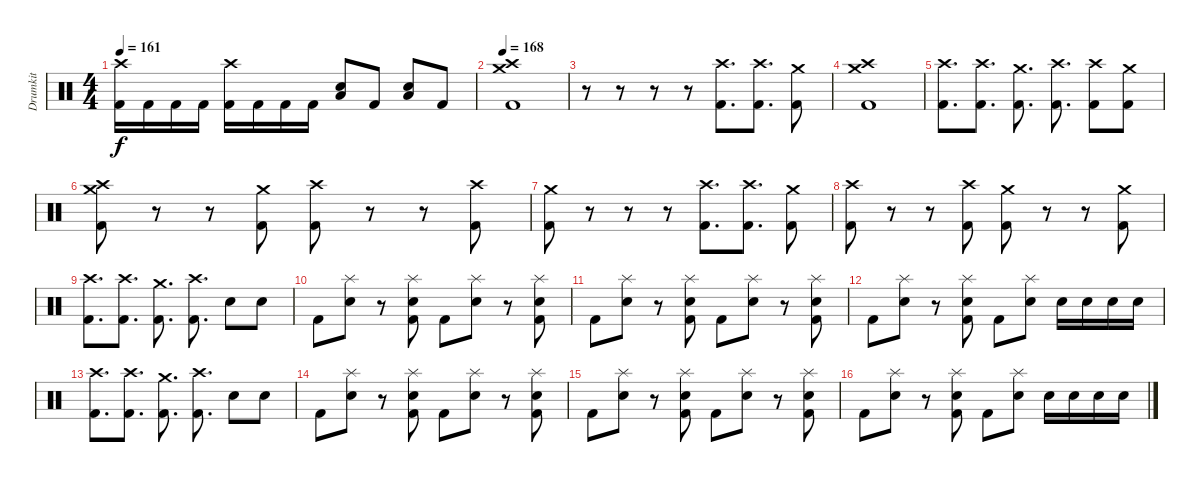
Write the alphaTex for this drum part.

\track ("Drumkit" "Drumkit") {instrument percussion}
\staff {score}
\articulation defaults
\ts (4 4)
\tempo 161
\clef neutral
\ks c
("Crash high (hit)" "Kick (hit) 2").16{dy f} "Kick (hit) 2".16 "Kick (hit) 2".16 "Kick (hit) 2".16 ("Crash high (hit)" "Kick (hit) 2").16 "Kick (hit) 2".16 "Kick (hit) 2".16 "Kick (hit) 2".16 ("Low Tom (hit)" "Snare (hit) 2").8 "Kick (hit) 2".8 ("Low Tom (hit)" "Snare (hit) 2").8 "Kick (hit) 2".8 |
\tempo 168
("Crash medium (hit)" "Crash high (hit)" "Kick (hit) 2").1 |
r.8 r.8 r.8 r.8 ("Crash high (hit)" "Kick (hit) 2").8{d} ("Crash high (hit)" "Kick (hit) 2").8{d} ("Crash medium (hit)" "Kick (hit) 2").8 |
("Crash high (hit)" "Crash medium (hit)" "Kick (hit) 2").1 |
("Crash high (hit)" "Kick (hit) 2").8{d} ("Crash high (hit)" "Kick (hit) 2").8{d} ("Crash medium (hit)" "Kick (hit) 2").8{d} ("Crash high (hit)" "Kick (hit) 2").8{d} ("Crash high (hit)" "Kick (hit) 2").8 ("Crash medium (hit)" "Kick (hit) 2").8 |
("Crash high (hit)" "Crash medium (hit)" "Kick (hit) 2").8 r.8 r.8 ("Crash medium (hit)" "Kick (hit) 2").8 ("Crash high (hit)" "Kick (hit) 2").8 r.8 r.8 ("Crash high (hit)" "Kick (hit) 2").8 |
("Crash medium (hit)" "Kick (hit) 2").8 r.8 r.8 r.8 ("Crash high (hit)" "Kick (hit) 2").8{d} ("Crash high (hit)" "Kick (hit) 2").8{d} ("Crash medium (hit)" "Kick (hit) 2").8 |
("Crash high (hit)" "Kick (hit) 2").8 r.8 r.8 ("Crash high (hit)" "Kick (hit) 2").8 ("Crash medium (hit)" "Kick (hit) 2").8 r.8 r.8 ("Crash medium (hit)" "Kick (hit) 2").8 |
("Crash high (hit)" "Kick (hit) 2").8{d} ("Crash high (hit)" "Kick (hit) 2").8{d} ("Crash medium (hit)" "Kick (hit) 2").8{d} ("Crash high (hit)" "Kick (hit) 2").8{d} "Snare (hit) 2".8 "Snare (hit) 2".8 |
"Kick (hit) 2".8 ("Splash (hit)" "Snare (hit) 2").8 r.8 ("Splash (hit)" "Snare (hit) 2" "Kick (hit) 2").8 "Kick (hit) 2".8 ("Splash (hit)" "Snare (hit) 2").8 r.8 ("Splash (hit)" "Snare (hit) 2" "Kick (hit) 2").8 |
"Kick (hit) 2".8 ("Splash (hit)" "Snare (hit) 2").8 r.8 ("Splash (hit)" "Snare (hit) 2" "Kick (hit) 2").8 "Kick (hit) 2".8 ("Splash (hit)" "Snare (hit) 2").8 r.8 ("Splash (hit)" "Snare (hit) 2" "Kick (hit) 2").8 |
"Kick (hit) 2".8 ("Splash (hit)" "Snare (hit) 2").8 r.8 ("Splash (hit)" "Snare (hit) 2" "Kick (hit) 2").8 "Kick (hit) 2".8 ("Splash (hit)" "Snare (hit) 2").8 "Snare (hit) 2".16 "Snare (hit) 2".16 "Snare (hit) 2".16 "Snare (hit) 2".16 |
("Crash high (hit)" "Kick (hit) 2").8{d} ("Crash high (hit)" "Kick (hit) 2").8{d} ("Crash medium (hit)" "Kick (hit) 2").8{d} ("Crash high (hit)" "Kick (hit) 2").8{d} "Snare (hit) 2".8 "Snare (hit) 2".8 |
"Kick (hit) 2".8 ("Splash (hit)" "Snare (hit) 2").8 r.8 ("Splash (hit)" "Snare (hit) 2" "Kick (hit) 2").8 "Kick (hit) 2".8 ("Splash (hit)" "Snare (hit) 2").8 r.8 ("Splash (hit)" "Snare (hit) 2" "Kick (hit) 2").8 |
"Kick (hit) 2".8 ("Splash (hit)" "Snare (hit) 2").8 r.8 ("Splash (hit)" "Snare (hit) 2" "Kick (hit) 2").8 "Kick (hit) 2".8 ("Splash (hit)" "Snare (hit) 2").8 r.8 ("Splash (hit)" "Snare (hit) 2" "Kick (hit) 2").8 |
"Kick (hit) 2".8 ("Splash (hit)" "Snare (hit) 2").8 r.8 ("Splash (hit)" "Snare (hit) 2" "Kick (hit) 2").8 "Kick (hit) 2".8 ("Splash (hit)" "Snare (hit) 2").8 "Snare (hit) 2".16 "Snare (hit) 2".16 "Snare (hit) 2".16 "Snare (hit) 2".16
